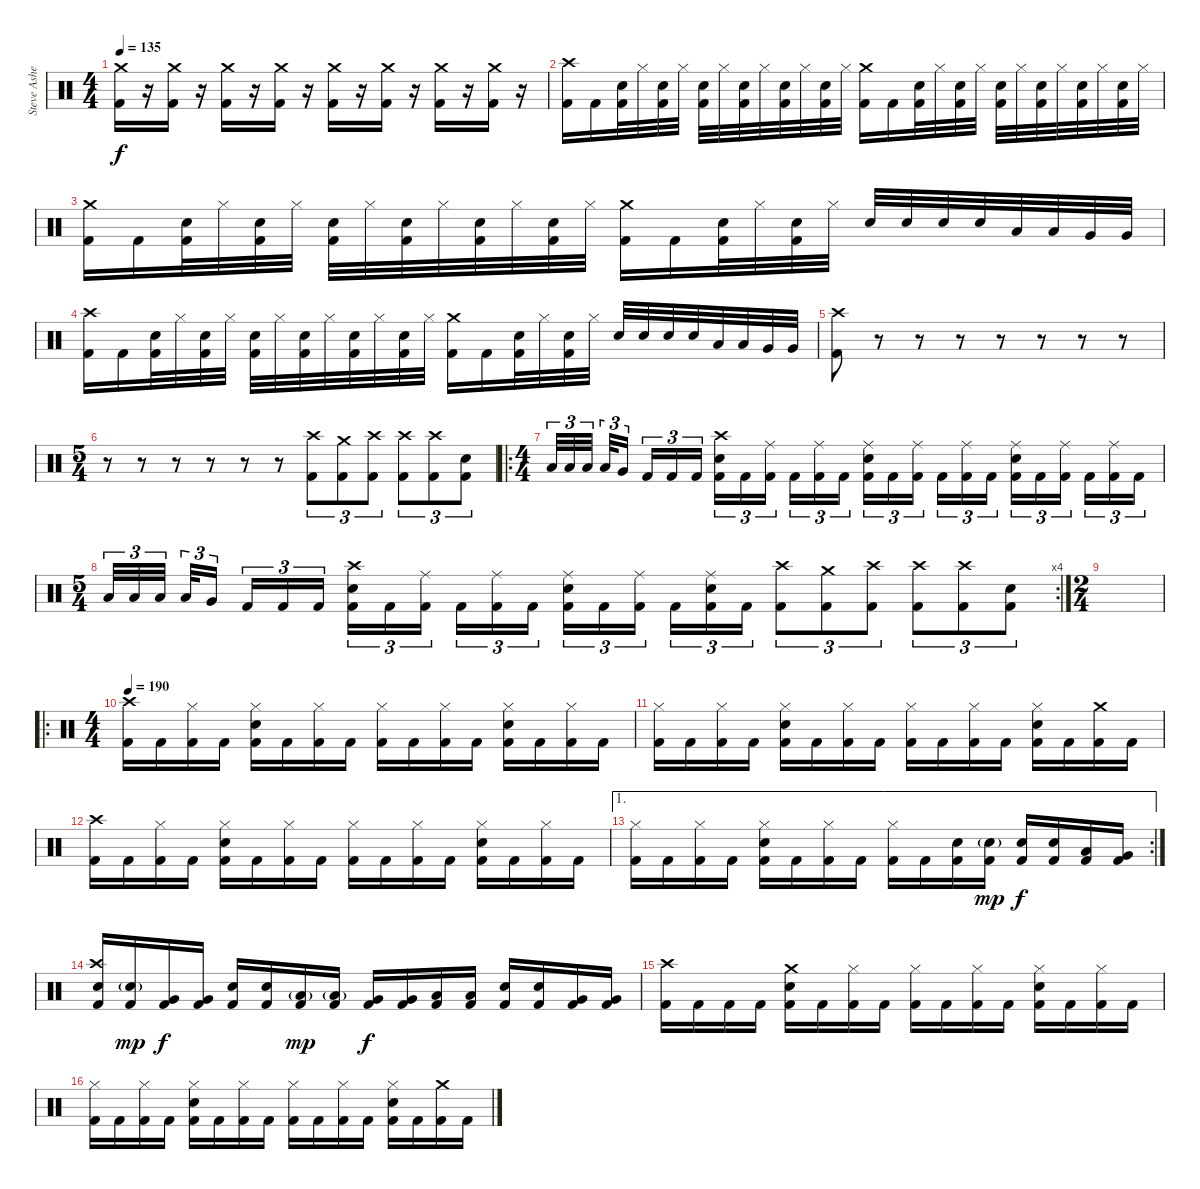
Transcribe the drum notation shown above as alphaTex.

\track ("Steve Asheim" "Steve Ashe") {instrument percussion}
\staff {score}
\articulation defaults
\ts (4 4)
\tempo 135
\clef neutral
\ks c
("Crash medium (hit)" "Kick (hit) 2").16{dy f volume 13} r.16{volume 0} ("Crash medium (hit)" "Kick (hit) 2").16{volume 13} r.16{volume 0} ("Crash medium (hit)" "Kick (hit) 2").16{volume 13} r.16{volume 0} ("Crash medium (hit)" "Kick (hit) 2").16{volume 13} r.16{volume 0} ("Crash medium (hit)" "Kick (hit) 2").16{volume 13} r.16{volume 0} ("Crash medium (hit)" "Kick (hit) 2").16{volume 13} r.16{volume 0} ("Crash medium (hit)" "Kick (hit) 2").16{volume 13} r.16{volume 0} ("Crash medium (hit)" "Kick (hit) 2").16{volume 13} r.16{volume 0} |
("Crash high (hit)" "Kick (hit) 2").16{volume 13} "Kick (hit) 2".16 ("Snare (hit) 2" "Kick (hit) 2").32 "Hi-Hat (closed)".32 ("Snare (hit) 2" "Kick (hit) 2").32 "Hi-Hat (closed)".32 ("Snare (hit) 2" "Kick (hit) 2").32 "Hi-Hat (closed)".32 ("Snare (hit) 2" "Kick (hit) 2").32 "Hi-Hat (closed)".32 ("Snare (hit) 2" "Kick (hit) 2").32 "Hi-Hat (closed)".32 ("Snare (hit) 2" "Kick (hit) 2").32 "Hi-Hat (closed)".32 ("Crash medium (hit)" "Kick (hit) 2").16 "Kick (hit) 2".16 ("Snare (hit) 2" "Kick (hit) 2").32 "Hi-Hat (closed)".32 ("Snare (hit) 2" "Kick (hit) 2").32 "Hi-Hat (closed)".32 ("Snare (hit) 2" "Kick (hit) 2").32 "Hi-Hat (closed)".32 ("Snare (hit) 2" "Kick (hit) 2").32 "Hi-Hat (closed)".32 ("Snare (hit) 2" "Kick (hit) 2").32 "Hi-Hat (closed)".32 ("Snare (hit) 2" "Kick (hit) 2").32 "Hi-Hat (closed)".32 |
("Crash medium (hit)" "Kick (hit) 2").16 "Kick (hit) 2".16 ("Snare (hit) 2" "Kick (hit) 2").32 "Hi-Hat (closed)".32 ("Snare (hit) 2" "Kick (hit) 2").32 "Hi-Hat (closed)".32 ("Snare (hit) 2" "Kick (hit) 2").32 "Hi-Hat (closed)".32 ("Snare (hit) 2" "Kick (hit) 2").32 "Hi-Hat (closed)".32 ("Snare (hit) 2" "Kick (hit) 2").32 "Hi-Hat (closed)".32 ("Snare (hit) 2" "Kick (hit) 2").32 "Hi-Hat (closed)".32 ("Crash medium (hit)" "Kick (hit) 2").16 "Kick (hit) 2".16 ("Snare (hit) 2" "Kick (hit) 2").32 "Hi-Hat (closed)".32 ("Snare (hit) 2" "Kick (hit) 2").32 "Hi-Hat (closed)".32 "Snare (hit) 2".32 "Snare (hit) 2".32 "Snare (hit) 2".32 "Snare (hit) 2".32 "Low Tom (hit)".32 "Low Tom (hit)".32 "Very Low Tom (hit)".32 "Very Low Tom (hit)".32 |
("Crash high (hit)" "Kick (hit) 2").16 "Kick (hit) 2".16 ("Snare (hit) 2" "Kick (hit) 2").32 "Hi-Hat (closed)".32 ("Snare (hit) 2" "Kick (hit) 2").32 "Hi-Hat (closed)".32 ("Snare (hit) 2" "Kick (hit) 2").32 "Hi-Hat (closed)".32 ("Snare (hit) 2" "Kick (hit) 2").32 "Hi-Hat (closed)".32 ("Snare (hit) 2" "Kick (hit) 2").32 "Hi-Hat (closed)".32 ("Snare (hit) 2" "Kick (hit) 2").32 "Hi-Hat (closed)".32 ("Crash medium (hit)" "Kick (hit) 2").16 "Kick (hit) 2".16 ("Snare (hit) 2" "Kick (hit) 2").32 "Hi-Hat (closed)".32 ("Snare (hit) 2" "Kick (hit) 2").32 "Hi-Hat (closed)".32 "Snare (hit) 2".32 "Snare (hit) 2".32 "Snare (hit) 2".32 "Snare (hit) 2".32 "Low Tom (hit)".32 "Low Tom (hit)".32 "Very Low Tom (hit)".32 "Very Low Tom (hit)".32 |
("Crash high (hit)" "Kick (hit) 2").8 r.8{volume 0} r.8 r.8 r.8 r.8 r.8 r.8 |
\ts (5 4)
r.8 r.8 r.8 r.8 r.8 r.8 ("Crash high (hit)" "Kick (hit) 2").8{tu (3 2) volume 13} ("Crash medium (hit)" "Kick (hit) 2").8{tu (3 2)} ("Crash high (hit)" "Kick (hit) 2").8{tu (3 2)} ("Crash high (hit)" "Kick (hit) 2").8{tu (3 2)} ("Crash high (hit)" "Kick (hit) 2").8{tu (3 2)} ("Snare (hit) 2" "Kick (hit) 2").8{tu (3 2)} |
\ro
\ts (4 4)
"Low Tom (hit)".32{tu (3 2)} "Low Tom (hit)".32{tu (3 2)} "Low Tom (hit)".32{tu (3 2) beam splitsecondary} "Low Tom (hit)".32{tu (3 2)} "Very Low Tom (hit)".16{tu (3 2) beam splitsecondary} "Kick (hit) 2".16{tu (3 2)} "Kick (hit) 2".16{tu (3 2)} "Kick (hit) 2".16{tu (3 2)} ("Crash high (hit)" "Snare (hit) 2" "Kick (hit) 2").16{tu (3 2)} "Kick (hit) 2".16{tu (3 2)} ("Ride (middle)" "Kick (hit) 2").16{tu (3 2) beam splitsecondary} "Kick (hit) 2".16{tu (3 2)} ("Ride (middle)" "Kick (hit) 2").16{tu (3 2)} "Kick (hit) 2".16{tu (3 2)} ("Ride (middle)" "Snare (hit) 2" "Kick (hit) 2").16{tu (3 2)} "Kick (hit) 2".16{tu (3 2)} ("Ride (middle)" "Kick (hit) 2").16{tu (3 2) beam splitsecondary} "Kick (hit) 2".16{tu (3 2)} ("Ride (middle)" "Kick (hit) 2").16{tu (3 2)} "Kick (hit) 2".16{tu (3 2)} ("Ride (middle)" "Snare (hit) 2" "Kick (hit) 2").16{tu (3 2)} "Kick (hit) 2".16{tu (3 2)} ("Ride (middle)" "Kick (hit) 2").16{tu (3 2) beam splitsecondary} "Kick (hit) 2".16{tu (3 2)} ("Ride (middle)" "Kick (hit) 2").16{tu (3 2)} "Kick (hit) 2".16{tu (3 2)} |
\rc 4
\ts (5 4)
"Low Tom (hit)".32{tu (3 2)} "Low Tom (hit)".32{tu (3 2)} "Low Tom (hit)".32{tu (3 2) beam splitsecondary} "Low Tom (hit)".32{tu (3 2)} "Very Low Tom (hit)".16{tu (3 2) beam splitsecondary} "Kick (hit) 2".16{tu (3 2)} "Kick (hit) 2".16{tu (3 2)} "Kick (hit) 2".16{tu (3 2)} ("Crash high (hit)" "Snare (hit) 2" "Kick (hit) 2").16{tu (3 2)} "Kick (hit) 2".16{tu (3 2)} ("Ride (middle)" "Kick (hit) 2").16{tu (3 2) beam splitsecondary} "Kick (hit) 2".16{tu (3 2)} ("Ride (middle)" "Kick (hit) 2").16{tu (3 2)} "Kick (hit) 2".16{tu (3 2)} ("Ride (middle)" "Snare (hit) 2" "Kick (hit) 2").16{tu (3 2)} "Kick (hit) 2".16{tu (3 2)} ("Ride (middle)" "Kick (hit) 2").16{tu (3 2) beam splitsecondary} "Kick (hit) 2".16{tu (3 2)} ("Ride (middle)" "Snare (hit) 2" "Kick (hit) 2").16{tu (3 2)} "Kick (hit) 2".16{tu (3 2)} ("Crash high (hit)" "Kick (hit) 2").8{tu (3 2)} ("Crash medium (hit)" "Kick (hit) 2").8{tu (3 2)} ("Crash high (hit)" "Kick (hit) 2").8{tu (3 2)} ("Crash high (hit)" "Kick (hit) 2").8{tu (3 2)} ("Crash high (hit)" "Kick (hit) 2").8{tu (3 2)} ("Snare (hit) 2" "Kick (hit) 2").8{tu (3 2)} |
\ts (2 4)
|
\ro
\ts (4 4)
\tempo 190
("Crash high (hit)" "Kick (hit) 2").16 "Kick (hit) 2".16 ("Hi-Hat (closed)" "Kick (hit) 2").16 "Kick (hit) 2".16 ("Hi-Hat (closed)" "Snare (hit) 2" "Kick (hit) 2").16 "Kick (hit) 2".16 ("Hi-Hat (closed)" "Kick (hit) 2").16 "Kick (hit) 2".16 ("Hi-Hat (closed)" "Kick (hit) 2").16 "Kick (hit) 2".16 ("Hi-Hat (closed)" "Kick (hit) 2").16 "Kick (hit) 2".16 ("Hi-Hat (closed)" "Snare (hit) 2" "Kick (hit) 2").16 "Kick (hit) 2".16 ("Hi-Hat (closed)" "Kick (hit) 2").16 "Kick (hit) 2".16 |
("Hi-Hat (closed)" "Kick (hit) 2").16 "Kick (hit) 2".16 ("Hi-Hat (closed)" "Kick (hit) 2").16 "Kick (hit) 2".16 ("Hi-Hat (closed)" "Snare (hit) 2" "Kick (hit) 2").16 "Kick (hit) 2".16 ("Hi-Hat (closed)" "Kick (hit) 2").16 "Kick (hit) 2".16 ("Hi-Hat (closed)" "Kick (hit) 2").16 "Kick (hit) 2".16 ("Hi-Hat (closed)" "Kick (hit) 2").16 "Kick (hit) 2".16 ("Hi-Hat (closed)" "Snare (hit) 2" "Kick (hit) 2").16 "Kick (hit) 2".16 ("Crash medium (hit)" "Kick (hit) 2").16 "Kick (hit) 2".16 |
("Crash high (hit)" "Kick (hit) 2").16 "Kick (hit) 2".16 ("Hi-Hat (closed)" "Kick (hit) 2").16 "Kick (hit) 2".16 ("Hi-Hat (closed)" "Snare (hit) 2" "Kick (hit) 2").16 "Kick (hit) 2".16 ("Hi-Hat (closed)" "Kick (hit) 2").16 "Kick (hit) 2".16 ("Hi-Hat (closed)" "Kick (hit) 2").16 "Kick (hit) 2".16 ("Hi-Hat (closed)" "Kick (hit) 2").16 "Kick (hit) 2".16 ("Hi-Hat (closed)" "Snare (hit) 2" "Kick (hit) 2").16 "Kick (hit) 2".16 ("Hi-Hat (closed)" "Kick (hit) 2").16 "Kick (hit) 2".16 |
\ae 1
\rc 2
("Hi-Hat (closed)" "Kick (hit) 2").16 "Kick (hit) 2".16 ("Hi-Hat (closed)" "Kick (hit) 2").16 "Kick (hit) 2".16 ("Hi-Hat (closed)" "Snare (hit) 2" "Kick (hit) 2").16 "Kick (hit) 2".16 ("Hi-Hat (closed)" "Kick (hit) 2").16 "Kick (hit) 2".16 ("Hi-Hat (closed)" "Kick (hit) 2").16 "Kick (hit) 2".16 ("Snare (hit) 2" "Kick (hit) 2").16 ("Snare (hit) 2"{g} "Kick (hit) 2").16{dy mp} ("Snare (hit) 2" "Kick (hit) 2").16{dy f} ("Snare (hit) 2" "Kick (hit) 2").16 ("Low Tom (hit)" "Kick (hit) 2").16 ("Very Low Tom (hit)" "Kick (hit) 2").16 |
("Crash high (hit)" "Snare (hit) 2" "Kick (hit) 2").16 ("Snare (hit) 2"{g} "Kick (hit) 2").16{dy mp} ("Very Low Tom (hit)" "Kick (hit) 2").16{dy f} ("Very Low Tom (hit)" "Kick (hit) 2").16 ("Snare (hit) 2" "Kick (hit) 2").16 ("Snare (hit) 2" "Kick (hit) 2").16 ("Low Tom (hit)"{g} "Kick (hit) 2").16{dy mp} ("Low Tom (hit)"{g} "Kick (hit) 2").16 ("Very Low Tom (hit)" "Kick (hit) 2").16{dy f} ("Very Low Tom (hit)" "Kick (hit) 2").16 ("Low Floor Tom (hit)" "Kick (hit) 2").16 ("Low Floor Tom (hit)" "Kick (hit) 2").16 ("Snare (hit) 2" "Kick (hit) 2").16 ("Snare (hit) 2" "Kick (hit) 2").16 ("Very Low Tom (hit)" "Kick (hit) 2").16 ("Very Low Tom (hit)" "Kick (hit) 2").16 |
("Crash high (hit)" "Kick (hit) 2").16 "Kick (hit) 2".16 "Kick (hit) 2".16 "Kick (hit) 2".16 ("Crash medium (hit)" "Snare (hit) 2" "Kick (hit) 2").16 "Kick (hit) 2".16 ("Hi-Hat (closed)" "Kick (hit) 2").16 "Kick (hit) 2".16 ("Hi-Hat (closed)" "Kick (hit) 2").16 "Kick (hit) 2".16 ("Hi-Hat (closed)" "Kick (hit) 2").16 "Kick (hit) 2".16 ("Hi-Hat (closed)" "Snare (hit) 2" "Kick (hit) 2").16 "Kick (hit) 2".16 ("Hi-Hat (closed)" "Kick (hit) 2").16 "Kick (hit) 2".16 |
("Hi-Hat (closed)" "Kick (hit) 2").16 "Kick (hit) 2".16 ("Hi-Hat (closed)" "Kick (hit) 2").16 "Kick (hit) 2".16 ("Hi-Hat (closed)" "Snare (hit) 2" "Kick (hit) 2").16 "Kick (hit) 2".16 ("Hi-Hat (closed)" "Kick (hit) 2").16 "Kick (hit) 2".16 ("Hi-Hat (closed)" "Kick (hit) 2").16 "Kick (hit) 2".16 ("Hi-Hat (closed)" "Kick (hit) 2").16 "Kick (hit) 2".16 ("Hi-Hat (closed)" "Snare (hit) 2" "Kick (hit) 2").16 "Kick (hit) 2".16 ("Crash medium (hit)" "Kick (hit) 2").16 "Kick (hit) 2".16
